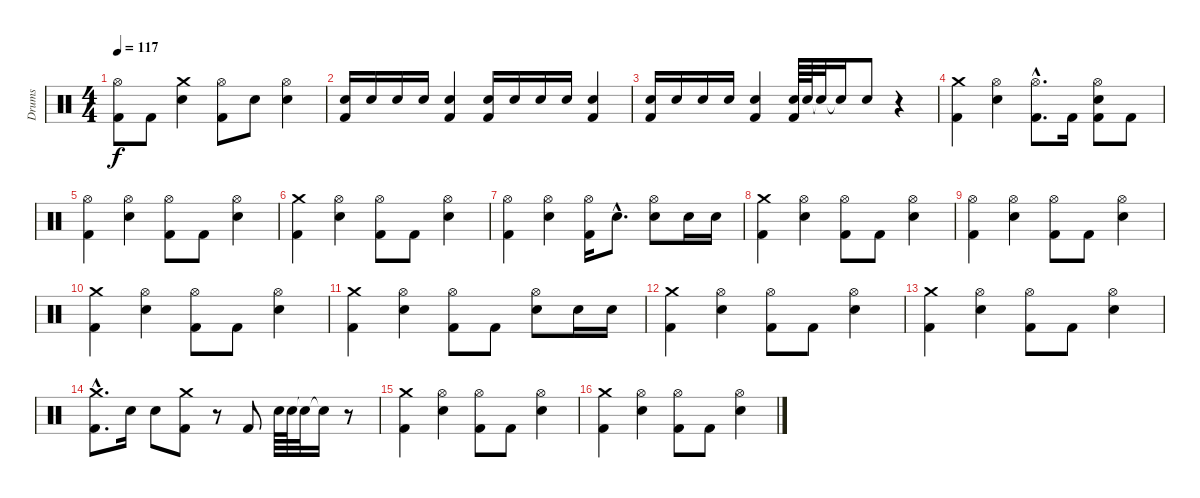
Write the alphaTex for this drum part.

\track ("Drums" "Drums") {instrument percussion}
\staff {score}
\articulation defaults
\ts (4 4)
\tempo 117
\clef neutral
\ks c
("Hi-Hat (open)" "Kick (hit) 2").8{dy f} "Kick (hit) 2".8 ("Crash medium (hit)" "Snare (hit) 2").4 ("Hi-Hat (open)" "Kick (hit) 2").8 "Snare (hit) 2".8 ("Hi-Hat (open)" "Snare (hit) 2").4 |
("Snare (hit) 2" "Kick (hit) 2").16 "Snare (hit) 2".16 "Snare (hit) 2".16 "Snare (hit) 2".16 ("Snare (hit) 2" "Kick (hit) 2").4 ("Snare (hit) 2" "Kick (hit) 2").16 "Snare (hit) 2".16 "Snare (hit) 2".16 "Snare (hit) 2".16 ("Snare (hit) 2" "Kick (hit) 2").4 |
("Snare (hit) 2" "Kick (hit) 2").16 "Snare (hit) 2".16 "Snare (hit) 2".16 "Snare (hit) 2".16 ("Snare (hit) 2" "Kick (hit) 2").4 ("Snare (hit) 2" "Kick (hit) 2").64 "Snare (hit) 2".64 "Snare (hit)"{t}.32 "Snare (hit)"{t}.16 "Snare (hit) 2".8 r.4 |
("Crash medium (hit)" "Kick (hit) 2").4 ("Hi-Hat (open)" "Snare (hit) 2").4 ("Hi-Hat (open)"{hac} "Kick (hit) 2"{hac}).8{d} "Kick (hit) 2".16 ("Hi-Hat (open)" "Snare (hit) 2" "Kick (hit) 2").8 "Kick (hit) 2".8 |
("Hi-Hat (open)" "Kick (hit) 2").4 ("Hi-Hat (open)" "Snare (hit) 2").4 ("Hi-Hat (open)" "Kick (hit) 2").8 "Kick (hit) 2".8 ("Hi-Hat (open)" "Snare (hit) 2").4 |
("Crash medium (hit)" "Kick (hit) 2").4 ("Hi-Hat (open)" "Snare (hit) 2").4 ("Hi-Hat (open)" "Kick (hit) 2").8 "Kick (hit) 2".8 ("Hi-Hat (open)" "Snare (hit) 2").4 |
("Hi-Hat (open)" "Kick (hit) 2").4 ("Hi-Hat (open)" "Snare (hit) 2").4 ("Hi-Hat (open)" "Kick (hit) 2").16 "Snare (hit) 2"{hac}.8{d} ("Hi-Hat (open)" "Snare (hit) 2").8 "Snare (hit) 2".16 "Snare (hit) 2".16 |
("Crash medium (hit)" "Kick (hit) 2").4 ("Hi-Hat (open)" "Snare (hit) 2").4 ("Hi-Hat (open)" "Kick (hit) 2").8 "Kick (hit) 2".8 ("Hi-Hat (open)" "Snare (hit) 2").4 |
("Hi-Hat (open)" "Kick (hit) 2").4 ("Hi-Hat (open)" "Snare (hit) 2").4 ("Hi-Hat (open)" "Kick (hit) 2").8 "Kick (hit) 2".8 ("Hi-Hat (open)" "Snare (hit) 2").4 |
("Crash medium (hit)" "Kick (hit) 2").4 ("Hi-Hat (open)" "Snare (hit) 2").4 ("Hi-Hat (open)" "Kick (hit) 2").8 "Kick (hit) 2".8 ("Hi-Hat (open)" "Snare (hit) 2").4 |
("Crash medium (hit)" "Kick (hit) 2").4 ("Hi-Hat (open)" "Snare (hit) 2").4 ("Hi-Hat (open)" "Kick (hit) 2").8 "Kick (hit) 2".8 ("Hi-Hat (open)" "Snare (hit) 2").8 "Snare (hit) 2".16 "Snare (hit) 2".16 |
("Crash medium (hit)" "Kick (hit) 2").4 ("Hi-Hat (open)" "Snare (hit) 2").4 ("Hi-Hat (open)" "Kick (hit) 2").8 "Kick (hit) 2".8 ("Hi-Hat (open)" "Snare (hit) 2").4 |
("Crash medium (hit)" "Kick (hit) 2").4 ("Hi-Hat (open)" "Snare (hit) 2").4 ("Hi-Hat (open)" "Kick (hit) 2").8 "Kick (hit) 2".8 ("Hi-Hat (open)" "Snare (hit) 2").4 |
("Crash medium (hit)"{hac} "Kick (hit) 2"{hac}).8{d} "Snare (hit) 2".16 "Snare (hit) 2".8 ("Crash medium (hit)" "Kick (hit) 2").8 r.8 "Kick (hit) 2".8 "Snare (hit) 2".64 "Snare (hit) 2".64 "Snare (hit)"{t}.32 "Snare (hit)"{t}.16 r.8 |
("Crash medium (hit)" "Kick (hit) 2").4 ("Hi-Hat (open)" "Snare (hit) 2").4 ("Hi-Hat (open)" "Kick (hit) 2").8 "Kick (hit) 2".8 ("Hi-Hat (open)" "Snare (hit) 2").4 |
("Crash medium (hit)" "Kick (hit) 2").4 ("Hi-Hat (open)" "Snare (hit) 2").4 ("Hi-Hat (open)" "Kick (hit) 2").8 "Kick (hit) 2".8 ("Hi-Hat (open)" "Snare (hit) 2").4
